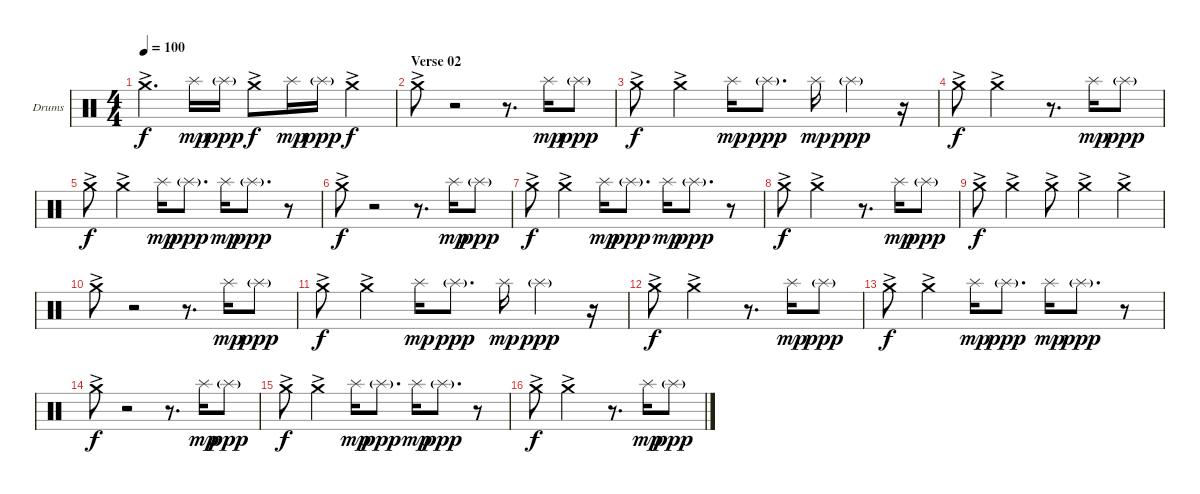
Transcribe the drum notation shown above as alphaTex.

\bracketExtendMode groupsimilarinstruments
\firstSystemTrackNameOrientation horizontal
\otherSystemsTrackNameOrientation horizontal
\track ("Cymbals left" "Drums") {instrument percussion}
\staff {score}
\articulation defaults
\ts (4 4)
\tempo 100
\clef neutral
\ks c "Crash medium (hit)"{ac}.4{d dy f} "Splash (hit)".16{dy mp} "Splash (hit)"{g}.16{dy ppp} "Crash medium (hit)"{ac}.8{dy f} "Splash (hit)".16{dy mp} "Splash (hit)"{g}.16{dy ppp} "Crash medium (hit)"{ac}.4{dy f}
|
\section ("" "Verse 02")
"Crash medium (hit)"{ac}.8 r.2 r.8{d} "Splash (hit)".16{dy mp} "Splash (hit)"{g}.8{dy ppp} |
"Crash medium (hit)"{ac}.8{dy f} "Crash medium (hit)"{ac}.4 "Splash (hit)".16{dy mp} "Splash (hit)"{g}.8{d dy ppp} "Splash (hit)".16{dy mp} "Splash (hit)"{g}.4{dy ppp} r.16 |
"Crash medium (hit)"{ac}.8{dy f} "Crash medium (hit)"{ac}.2 r.8{d} "Splash (hit)".16{dy mp} "Splash (hit)"{g}.8{dy ppp} |
"Crash medium (hit)"{ac}.8{dy f} "Crash medium (hit)"{ac}.4 "Splash (hit)".16{dy mp} "Splash (hit)"{g}.8{d dy ppp} "Splash (hit)".16{dy mp} "Splash (hit)"{g}.8{d dy ppp} r.8 |
"Crash medium (hit)"{ac}.8{dy f} r.2 r.8{d} "Splash (hit)".16{dy mp} "Splash (hit)"{g}.8{dy ppp} |
"Crash medium (hit)"{ac}.8{dy f} "Crash medium (hit)"{ac}.4 "Splash (hit)".16{dy mp} "Splash (hit)"{g}.8{d dy ppp} "Splash (hit)".16{dy mp} "Splash (hit)"{g}.8{d dy ppp} r.8 |
"Crash medium (hit)"{ac}.8{dy f} "Crash medium (hit)"{ac}.2 r.8{d} "Splash (hit)".16{dy mp} "Splash (hit)"{g}.8{dy ppp} |
"Crash medium (hit)"{ac}.8{dy f} "Crash medium (hit)"{ac}.4 "Crash medium (hit)"{ac}.8 "Crash medium (hit)"{ac}.4 "Crash medium (hit)"{ac}.4 |
"Crash medium (hit)"{ac}.8 r.2 r.8{d} "Splash (hit)".16{dy mp} "Splash (hit)"{g}.8{dy ppp} |
"Crash medium (hit)"{ac}.8{dy f} "Crash medium (hit)"{ac}.4 "Splash (hit)".16{dy mp} "Splash (hit)"{g}.8{d dy ppp} "Splash (hit)".16{dy mp} "Splash (hit)"{g}.4{dy ppp} r.16 |
"Crash medium (hit)"{ac}.8{dy f} "Crash medium (hit)"{ac}.2 r.8{d} "Splash (hit)".16{dy mp} "Splash (hit)"{g}.8{dy ppp} |
"Crash medium (hit)"{ac}.8{dy f} "Crash medium (hit)"{ac}.4 "Splash (hit)".16{dy mp} "Splash (hit)"{g}.8{d dy ppp} "Splash (hit)".16{dy mp} "Splash (hit)"{g}.8{d dy ppp} r.8 |
"Crash medium (hit)"{ac}.8{dy f} r.2 r.8{d} "Splash (hit)".16{dy mp} "Splash (hit)"{g}.8{dy ppp} |
"Crash medium (hit)"{ac}.8{dy f} "Crash medium (hit)"{ac}.4 "Splash (hit)".16{dy mp} "Splash (hit)"{g}.8{d dy ppp} "Splash (hit)".16{dy mp} "Splash (hit)"{g}.8{d dy ppp} r.8 |
"Crash medium (hit)"{ac}.8{dy f} "Crash medium (hit)"{ac}.2 r.8{d} "Splash (hit)".16{dy mp} "Splash (hit)"{g}.8{dy ppp}
